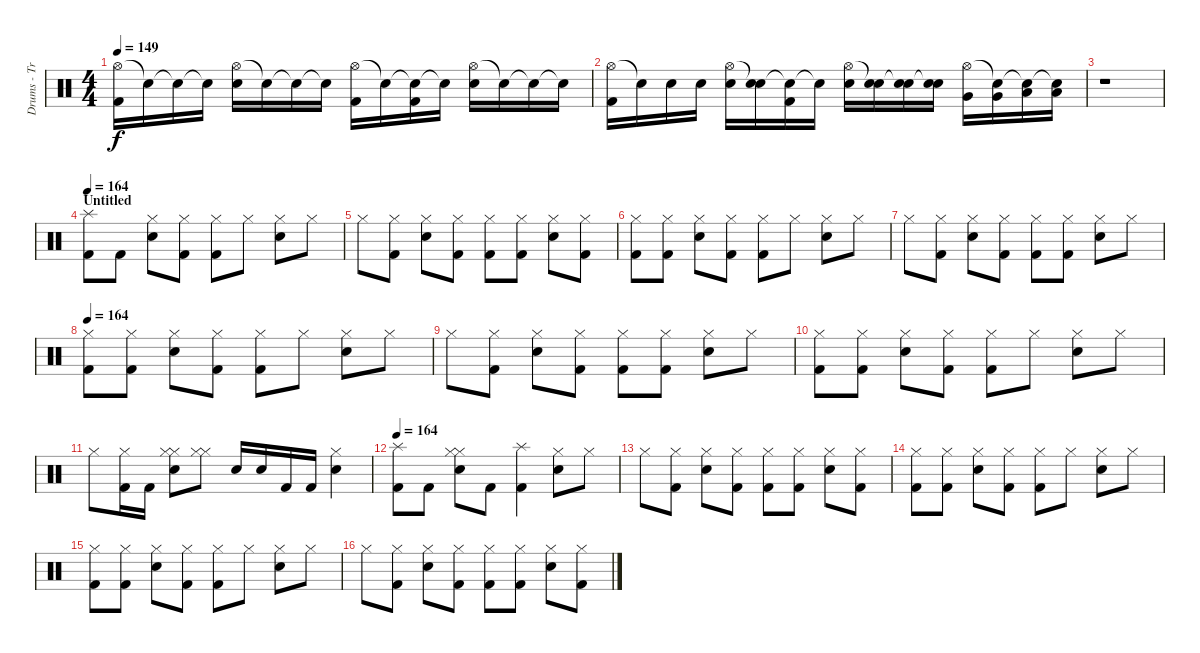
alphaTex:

\track ("Drums - Travis Barker" "Drums - Tr") {instrument percussion}
\staff {score}
\articulation defaults
\ts (4 4)
\tempo 149
\clef neutral
\ks c
("Hi-Hat (open)" "Kick (hit) 2").16{dy f} "Snare (hit)"{t}.16 "Snare (hit)"{t}.16 "Snare (hit)"{t}.16 ("Hi-Hat (open)" "Electric Snare (hit)").16 "Snare (hit)"{t}.16 "Snare (hit)"{t}.16 "Snare (hit)"{t}.16 ("Hi-Hat (open)" "Kick (hit) 2").16 "Snare (hit)"{t}.16 ("Snare (hit)"{t} "Kick (hit) 2").16 "Snare (hit)"{t}.16 ("Hi-Hat (open)" "Electric Snare (hit)").16 "Snare (hit)"{t}.16 "Snare (hit)"{t}.16 "Snare (hit)"{t}.16 |
("Hi-Hat (open)" "Kick (hit) 2").16 "Snare (hit)"{t}.16 "Electric Snare (hit)".16 "Electric Snare (hit)".16 ("Hi-Hat (open)" "Electric Snare (hit)").16 ("Snare (hit)"{t} "Electric Snare (hit)").16 ("Snare (hit)"{t} "Kick (hit) 2").16 "Snare (hit)"{t}.16 ("Hi-Hat (open)" "Electric Snare (hit)").16 ("Snare (hit)"{t} "Electric Snare (hit)").16 ("Snare (hit)"{t} "Electric Snare (hit)").16 ("Snare (hit)"{t} "Electric Snare (hit)").16 ("Hi-Hat (open)" "Very Low Tom (hit)").16 ("Snare (hit)"{t} "Very Low Tom (hit)").16 ("Snare (hit)"{t} "Low Floor Tom (hit)").16 ("Snare (hit)"{t} "Low Floor Tom (hit)").16 |
r.1 |
\section ("" "Untitled")
\tempo 164
("Splash (hit)" "Kick (hit) 2").8 "Kick (hit) 2".8 ("Hi-Hat (closed)" "Electric Snare (hit)").8 ("Hi-Hat (closed)" "Kick (hit) 2").8 ("Hi-Hat (closed)" "Kick (hit) 2").8 "Hi-Hat (closed)".8 ("Hi-Hat (closed)" "Electric Snare (hit)").8 "Hi-Hat (closed)".8 |
"Hi-Hat (closed)".8 ("Hi-Hat (closed)" "Kick (hit) 2").8 ("Hi-Hat (closed)" "Electric Snare (hit)").8 ("Hi-Hat (closed)" "Kick (hit) 2").8 ("Hi-Hat (closed)" "Kick (hit) 2").8 ("Hi-Hat (closed)" "Kick (hit) 2").8 ("Hi-Hat (closed)" "Electric Snare (hit)").8 ("Hi-Hat (closed)" "Kick (hit) 2").8 |
("Hi-Hat (closed)" "Kick (hit) 2").8 ("Hi-Hat (closed)" "Kick (hit) 2").8 ("Hi-Hat (closed)" "Electric Snare (hit)").8 ("Hi-Hat (closed)" "Kick (hit) 2").8 ("Hi-Hat (closed)" "Kick (hit) 2").8 "Hi-Hat (closed)".8 ("Hi-Hat (closed)" "Electric Snare (hit)").8 "Hi-Hat (closed)".8 |
"Hi-Hat (closed)".8 ("Hi-Hat (closed)" "Kick (hit) 2").8 ("Hi-Hat (closed)" "Electric Snare (hit)").8 ("Hi-Hat (closed)" "Kick (hit) 2").8 ("Hi-Hat (closed)" "Kick (hit) 2").8 ("Hi-Hat (closed)" "Kick (hit) 2").8 ("Hi-Hat (closed)" "Electric Snare (hit)").8 "Hi-Hat (closed)".8 |
\tempo 164
("Hi-Hat (closed)" "Kick (hit) 2").8 ("Hi-Hat (closed)" "Kick (hit) 2").8 ("Hi-Hat (closed)" "Electric Snare (hit)").8 ("Hi-Hat (closed)" "Kick (hit) 2").8 ("Hi-Hat (closed)" "Kick (hit) 2").8 "Hi-Hat (closed)".8 ("Hi-Hat (closed)" "Electric Snare (hit)").8 "Hi-Hat (closed)".8 |
"Hi-Hat (closed)".8 ("Hi-Hat (closed)" "Kick (hit) 2").8 ("Hi-Hat (closed)" "Electric Snare (hit)").8 ("Hi-Hat (closed)" "Kick (hit) 2").8 ("Hi-Hat (closed)" "Kick (hit) 2").8 ("Hi-Hat (closed)" "Kick (hit) 2").8 ("Hi-Hat (closed)" "Electric Snare (hit)").8 "Hi-Hat (closed)".8 |
("Hi-Hat (closed)" "Kick (hit) 2").8 ("Hi-Hat (closed)" "Kick (hit) 2").8 ("Hi-Hat (closed)" "Electric Snare (hit)").8 ("Hi-Hat (closed)" "Kick (hit) 2").8 ("Hi-Hat (closed)" "Kick (hit) 2").8 "Hi-Hat (closed)".8 ("Hi-Hat (closed)" "Electric Snare (hit)").8 "Hi-Hat (closed)".8 |
"Hi-Hat (closed)".8 ("Hi-Hat (closed)" "Kick (hit) 2").16 "Kick (hit) 2".16 ("Hi-Hat (closed)" "Hi-Hat (closed)" "Electric Snare (hit)").8 ("Hi-Hat (closed)" "Hi-Hat (closed)").8 "Electric Snare (hit)".16 "Electric Snare (hit)".16 "Kick (hit) 2".16 "Kick (hit) 2".16 ("Hi-Hat (closed)" "Electric Snare (hit)").4 |
\tempo 164
("Splash (hit)" "Kick (hit) 2").8 "Kick (hit) 2".8 ("Hi-Hat (closed)" "Hi-Hat (closed)" "Electric Snare (hit)").8 "Kick (hit) 2".8 ("Splash (hit)" "Kick (hit) 2").4 ("Hi-Hat (closed)" "Electric Snare (hit)").8 "Hi-Hat (closed)".8 |
"Hi-Hat (closed)".8 ("Hi-Hat (closed)" "Kick (hit) 2").8 ("Hi-Hat (closed)" "Electric Snare (hit)").8 ("Hi-Hat (closed)" "Kick (hit) 2").8 ("Hi-Hat (closed)" "Kick (hit) 2").8 ("Hi-Hat (closed)" "Kick (hit) 2").8 ("Hi-Hat (closed)" "Electric Snare (hit)").8 ("Hi-Hat (closed)" "Kick (hit) 2").8 |
("Hi-Hat (closed)" "Kick (hit) 2").8 ("Hi-Hat (closed)" "Kick (hit) 2").8 ("Hi-Hat (closed)" "Electric Snare (hit)").8 ("Hi-Hat (closed)" "Kick (hit) 2").8 ("Hi-Hat (closed)" "Kick (hit) 2").8 "Hi-Hat (closed)".8 ("Hi-Hat (closed)" "Electric Snare (hit)").8 "Hi-Hat (closed)".8 |
("Hi-Hat (closed)" "Kick (hit) 2").8 ("Hi-Hat (closed)" "Kick (hit) 2").8 ("Hi-Hat (closed)" "Electric Snare (hit)").8 ("Hi-Hat (closed)" "Kick (hit) 2").8 ("Hi-Hat (closed)" "Kick (hit) 2").8 "Hi-Hat (closed)".8 ("Hi-Hat (closed)" "Electric Snare (hit)").8 "Hi-Hat (closed)".8 |
"Hi-Hat (closed)".8 ("Hi-Hat (closed)" "Kick (hit) 2").8 ("Hi-Hat (closed)" "Electric Snare (hit)").8 ("Hi-Hat (closed)" "Kick (hit) 2").8 ("Hi-Hat (closed)" "Kick (hit) 2").8 ("Hi-Hat (closed)" "Kick (hit) 2").8 ("Hi-Hat (closed)" "Electric Snare (hit)").8 ("Hi-Hat (closed)" "Kick (hit) 2").8
